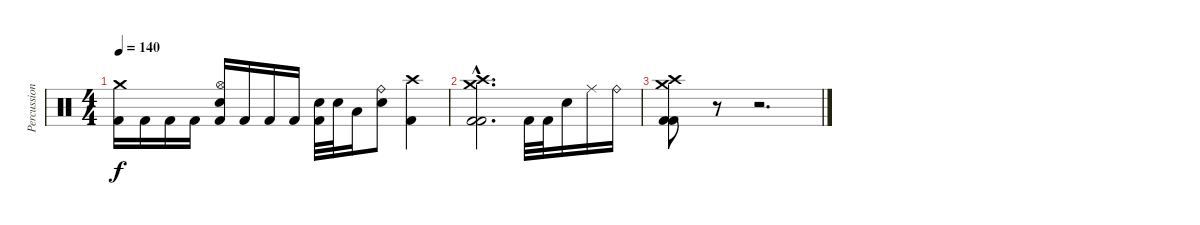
\track ("Percussion" "Percussion") {instrument percussion}
\staff {score}
\articulation defaults
\ts (4 4)
\tempo 140
\clef neutral
\ks c
("Crash medium (hit)" "Kick (hit) 2").16{dy f} "Kick (hit) 2".16 "Kick (hit) 2".16 "Kick (hit) 2".16 ("Hi-Hat (open)" "Electric Snare (hit)" "Kick (hit) 2").16 "Kick (hit) 2".16 "Kick (hit) 2".16 "Kick (hit) 2".16 ("Electric Snare (hit)" "Kick (hit) 2").32 "Electric Snare (hit)".32 "Low Tom (hit)".16 ("Ride (bell)" "Electric Snare (hit)").8 ("Crash high (hit)" "Kick (hit) 2").4 |
("Crash high (hit)"{hac} "Crash medium (hit)"{hac} "Kick (hit) 2"{hac} "Kick (hit) 2"{hac}).2{d} "Kick (hit) 2".32 "Kick (hit) 2".32 "Electric Snare (hit)".16 "Ride (middle)".16 "Ride (bell)".16 |
("Crash high (hit)" "Crash medium (hit)" "Kick (hit) 2" "Kick (hit) 2").8 r.8 r.2{d}
